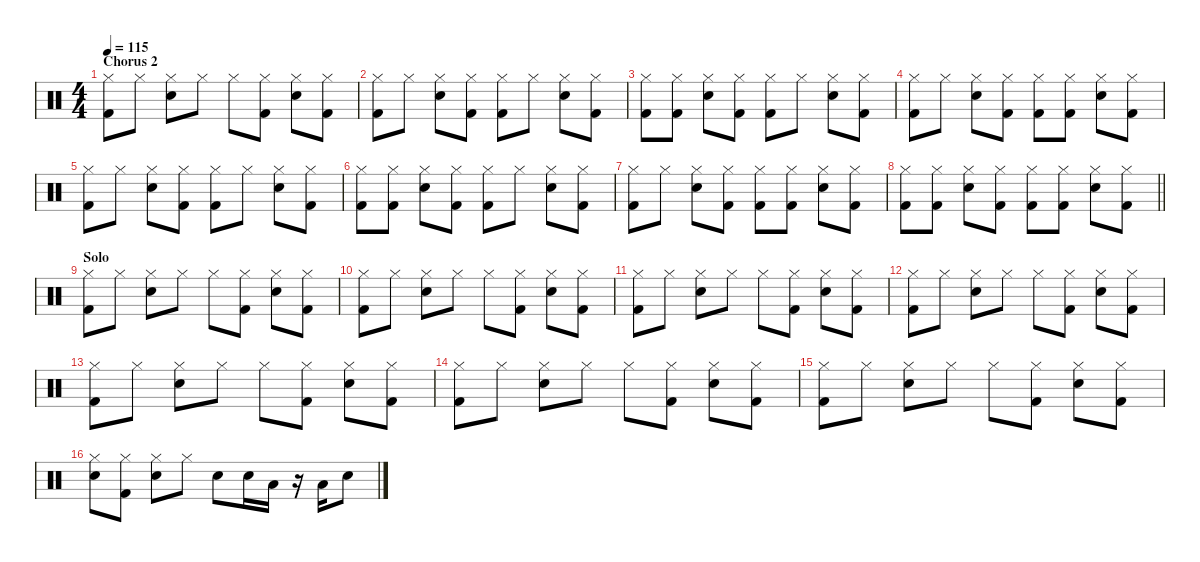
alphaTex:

\defaultSystemsLayout 4
\hideDynamics
\bracketExtendMode nobrackets
\singleTrackTrackNamePolicy hidden
\multiTrackTrackNamePolicy hidden
\otherSystemsTrackNameOrientation horizontal
\track ("Drums" "drm.") {defaultSystemsLayout 4 instrument percussion}
\staff {score}
\articulation defaults
\ts (4 4)
\section ("" "Chorus 2")
\tempo 115
\clef neutral
\ks c
("Hi-Hat (closed)" "Kick (hit) 2").8{dy f} "Hi-Hat (closed)".8 ("Hi-Hat (closed)" "Snare (hit) 2").8 "Hi-Hat (closed)".8 "Hi-Hat (closed)".8 ("Hi-Hat (closed)" "Kick (hit) 2").8 ("Hi-Hat (closed)" "Snare (hit) 2").8 ("Hi-Hat (closed)" "Kick (hit) 2").8 |
("Hi-Hat (closed)" "Kick (hit) 2").8 "Hi-Hat (closed)".8 ("Hi-Hat (closed)" "Snare (hit) 2").8 ("Hi-Hat (closed)" "Kick (hit) 2").8 ("Hi-Hat (closed)" "Kick (hit) 2").8 "Hi-Hat (closed)".8 ("Hi-Hat (closed)" "Snare (hit) 2").8 ("Hi-Hat (closed)" "Kick (hit) 2").8 |
("Hi-Hat (closed)" "Kick (hit) 2").8 ("Hi-Hat (closed)" "Kick (hit) 2").8 ("Hi-Hat (closed)" "Snare (hit) 2").8 ("Hi-Hat (closed)" "Kick (hit) 2").8 ("Hi-Hat (closed)" "Kick (hit) 2").8 "Hi-Hat (closed)".8 ("Hi-Hat (closed)" "Snare (hit) 2").8 ("Hi-Hat (closed)" "Kick (hit) 2").8 |
("Hi-Hat (closed)" "Kick (hit) 2").8 "Hi-Hat (closed)".8 ("Hi-Hat (closed)" "Snare (hit) 2").8 ("Hi-Hat (closed)" "Kick (hit) 2").8 ("Hi-Hat (closed)" "Kick (hit) 2").8 ("Hi-Hat (closed)" "Kick (hit) 2").8 ("Hi-Hat (closed)" "Snare (hit) 2").8 ("Hi-Hat (closed)" "Kick (hit) 2").8 |
("Hi-Hat (closed)" "Kick (hit) 2").8 "Hi-Hat (closed)".8 ("Hi-Hat (closed)" "Snare (hit) 2").8 ("Hi-Hat (closed)" "Kick (hit) 2").8 ("Hi-Hat (closed)" "Kick (hit) 2").8 "Hi-Hat (closed)".8 ("Hi-Hat (closed)" "Snare (hit) 2").8 ("Hi-Hat (closed)" "Kick (hit) 2").8 |
("Hi-Hat (closed)" "Kick (hit) 2").8 ("Hi-Hat (closed)" "Kick (hit) 2").8 ("Hi-Hat (closed)" "Snare (hit) 2").8 ("Hi-Hat (closed)" "Kick (hit) 2").8 ("Hi-Hat (closed)" "Kick (hit) 2").8 "Hi-Hat (closed)".8 ("Hi-Hat (closed)" "Snare (hit) 2").8 ("Hi-Hat (closed)" "Kick (hit) 2").8 |
("Hi-Hat (closed)" "Kick (hit) 2").8 "Hi-Hat (closed)".8 ("Hi-Hat (closed)" "Snare (hit) 2").8 ("Hi-Hat (closed)" "Kick (hit) 2").8 ("Hi-Hat (closed)" "Kick (hit) 2").8 ("Hi-Hat (closed)" "Kick (hit) 2").8 ("Hi-Hat (closed)" "Snare (hit) 2").8 ("Hi-Hat (closed)" "Kick (hit) 2").8 |
\barLineRight lightlight
("Hi-Hat (closed)" "Kick (hit) 2").8 ("Hi-Hat (closed)" "Kick (hit) 2").8 ("Hi-Hat (closed)" "Snare (hit) 2").8 ("Hi-Hat (closed)" "Kick (hit) 2").8 ("Hi-Hat (closed)" "Kick (hit) 2").8 ("Hi-Hat (closed)" "Kick (hit) 2").8 ("Hi-Hat (closed)" "Snare (hit) 2").8 ("Hi-Hat (closed)" "Kick (hit) 2").8 |
\section ("" "Solo")
("Hi-Hat (closed)" "Kick (hit) 2").8 "Hi-Hat (closed)".8 ("Hi-Hat (closed)" "Snare (hit) 2").8 "Hi-Hat (closed)".8 "Hi-Hat (closed)".8 ("Hi-Hat (closed)" "Kick (hit) 2").8 ("Hi-Hat (closed)" "Snare (hit) 2").8 ("Hi-Hat (closed)" "Kick (hit) 2").8 |
("Hi-Hat (closed)" "Kick (hit) 2").8 "Hi-Hat (closed)".8 ("Hi-Hat (closed)" "Snare (hit) 2").8 "Hi-Hat (closed)".8 "Hi-Hat (closed)".8 ("Hi-Hat (closed)" "Kick (hit) 2").8 ("Hi-Hat (closed)" "Snare (hit) 2").8 ("Hi-Hat (closed)" "Kick (hit) 2").8 |
("Hi-Hat (closed)" "Kick (hit) 2").8 "Hi-Hat (closed)".8 ("Hi-Hat (closed)" "Snare (hit) 2").8 "Hi-Hat (closed)".8 "Hi-Hat (closed)".8 ("Hi-Hat (closed)" "Kick (hit) 2").8 ("Hi-Hat (closed)" "Snare (hit) 2").8 ("Hi-Hat (closed)" "Kick (hit) 2").8 |
("Hi-Hat (closed)" "Kick (hit) 2").8 "Hi-Hat (closed)".8 ("Hi-Hat (closed)" "Snare (hit) 2").8 "Hi-Hat (closed)".8 "Hi-Hat (closed)".8 ("Hi-Hat (closed)" "Kick (hit) 2").8 ("Hi-Hat (closed)" "Snare (hit) 2").8 ("Hi-Hat (closed)" "Kick (hit) 2").8 |
("Hi-Hat (closed)" "Kick (hit) 2").8 "Hi-Hat (closed)".8 ("Hi-Hat (closed)" "Snare (hit) 2").8 "Hi-Hat (closed)".8 "Hi-Hat (closed)".8 ("Hi-Hat (closed)" "Kick (hit) 2").8 ("Hi-Hat (closed)" "Snare (hit) 2").8 ("Hi-Hat (closed)" "Kick (hit) 2").8 |
("Hi-Hat (closed)" "Kick (hit) 2").8 "Hi-Hat (closed)".8 ("Hi-Hat (closed)" "Snare (hit) 2").8 "Hi-Hat (closed)".8 "Hi-Hat (closed)".8 ("Hi-Hat (closed)" "Kick (hit) 2").8 ("Hi-Hat (closed)" "Snare (hit) 2").8 ("Hi-Hat (closed)" "Kick (hit) 2").8 |
("Hi-Hat (closed)" "Kick (hit) 2").8 "Hi-Hat (closed)".8 ("Hi-Hat (closed)" "Snare (hit) 2").8 "Hi-Hat (closed)".8 "Hi-Hat (closed)".8 ("Hi-Hat (closed)" "Kick (hit) 2").8 ("Hi-Hat (closed)" "Snare (hit) 2").8 ("Hi-Hat (closed)" "Kick (hit) 2").8 |
("Hi-Hat (closed)" "Snare (hit) 2").8 ("Hi-Hat (closed)" "Kick (hit) 2").8 ("Hi-Hat (closed)" "Snare (hit) 2").8 "Hi-Hat (closed)".8 "Snare (hit) 2".8 "Snare (hit) 2".16 "Low Tom (hit)".16 r.16 "Low Tom (hit)".16 "Snare (hit) 2".8
